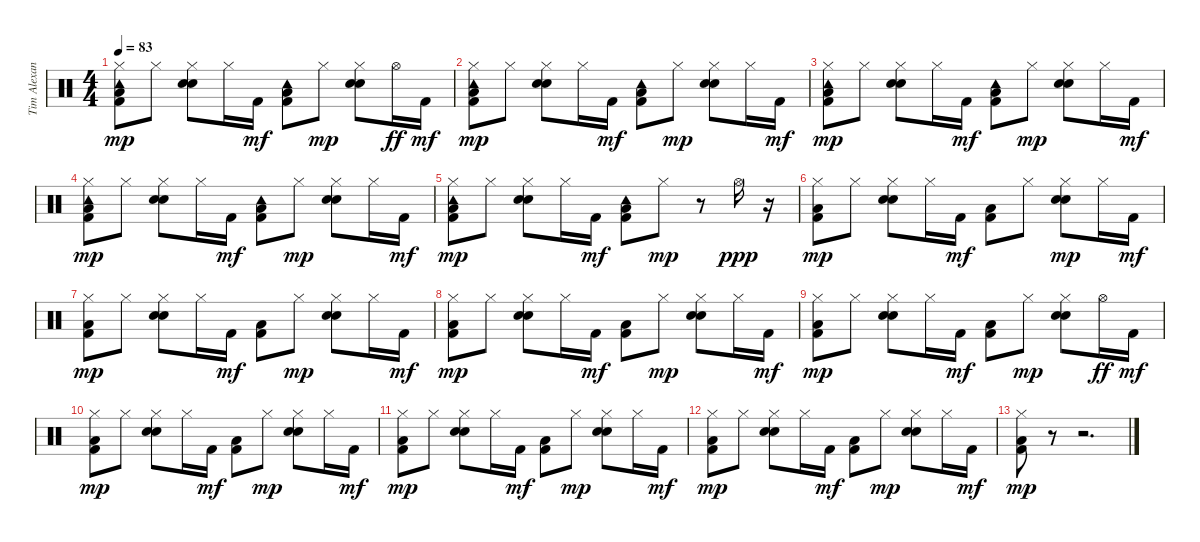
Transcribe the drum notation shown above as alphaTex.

\track ("Tim Alexander" "Tim Alexan") {instrument percussion}
\staff {score}
\articulation defaults
\ts (4 4)
\tempo 83
\clef neutral
\ks c
("Tambourine (hit)" "Kick (hit) 2" "Low Floor Tom (hit)" "Hi-Hat (closed)").8{dy mp} "Hi-Hat (closed)".8 ("Hand Clap (hit)" "Electric Snare (hit)" "Hi-Hat (closed)").8 "Hi-Hat (closed)".16 "Kick (hit) 2".16{dy mf} ("Tambourine (hit)" "Kick (hit) 2" "Low Floor Tom (hit)").8 "Hi-Hat (closed)".8{dy mp} ("Hand Clap (hit)" "Electric Snare (hit)" "Hi-Hat (closed)").8 "Hi-Hat (open)".16{dy ff} "Kick (hit) 2".16{dy mf} |
("Tambourine (hit)" "Kick (hit) 2" "Low Floor Tom (hit)" "Hi-Hat (closed)").8{dy mp} "Hi-Hat (closed)".8 ("Hand Clap (hit)" "Electric Snare (hit)" "Hi-Hat (closed)").8 "Hi-Hat (closed)".16 "Kick (hit) 2".16{dy mf} ("Tambourine (hit)" "Kick (hit) 2" "Low Floor Tom (hit)").8 "Hi-Hat (closed)".8{dy mp} ("Hand Clap (hit)" "Electric Snare (hit)" "Hi-Hat (closed)").8 "Hi-Hat (closed)".16 "Kick (hit) 2".16{dy mf} |
("Tambourine (hit)" "Kick (hit) 2" "Low Floor Tom (hit)" "Hi-Hat (closed)").8{dy mp} "Hi-Hat (closed)".8 ("Hand Clap (hit)" "Electric Snare (hit)" "Hi-Hat (closed)").8 "Hi-Hat (closed)".16 "Kick (hit) 2".16{dy mf} ("Tambourine (hit)" "Kick (hit) 2" "Low Floor Tom (hit)").8 "Hi-Hat (closed)".8{dy mp} ("Hand Clap (hit)" "Electric Snare (hit)" "Hi-Hat (closed)").8 "Hi-Hat (closed)".16 "Kick (hit) 2".16{dy mf} |
("Tambourine (hit)" "Kick (hit) 2" "Low Floor Tom (hit)" "Hi-Hat (closed)").8{dy mp} "Hi-Hat (closed)".8 ("Hand Clap (hit)" "Electric Snare (hit)" "Hi-Hat (closed)").8 "Hi-Hat (closed)".16 "Kick (hit) 2".16{dy mf} ("Tambourine (hit)" "Kick (hit) 2" "Low Floor Tom (hit)").8 "Hi-Hat (closed)".8{dy mp} ("Hand Clap (hit)" "Electric Snare (hit)" "Hi-Hat (closed)").8 "Hi-Hat (closed)".16 "Kick (hit) 2".16{dy mf} |
("Tambourine (hit)" "Kick (hit) 2" "Low Floor Tom (hit)" "Hi-Hat (closed)").8{dy mp} "Hi-Hat (closed)".8 ("Hand Clap (hit)" "Electric Snare (hit)" "Hi-Hat (closed)").8 "Hi-Hat (closed)".16 "Kick (hit) 2".16{dy mf} ("Tambourine (hit)" "Kick (hit) 2" "Low Floor Tom (hit)").8 "Hi-Hat (closed)".8{dy mp} r.8 "Hi-Hat (open)".16{dy ppp} r.16 |
("Kick (hit) 2" "Low Floor Tom (hit)" "Hi-Hat (closed)").8{dy mp} "Hi-Hat (closed)".8 ("Hand Clap (hit)" "Electric Snare (hit)" "Hi-Hat (closed)").8 "Hi-Hat (closed)".16 "Kick (hit) 2".16{dy mf} ("Kick (hit) 2" "Low Floor Tom (hit)").8 "Hi-Hat (closed)".8 ("Hand Clap (hit)" "Electric Snare (hit)" "Hi-Hat (closed)").8{dy mp} "Hi-Hat (closed)".16 "Kick (hit) 2".16{dy mf} |
("Kick (hit) 2" "Low Floor Tom (hit)" "Hi-Hat (closed)").8{dy mp} "Hi-Hat (closed)".8 ("Hand Clap (hit)" "Electric Snare (hit)" "Hi-Hat (closed)").8 "Hi-Hat (closed)".16 "Kick (hit) 2".16{dy mf} ("Kick (hit) 2" "Low Floor Tom (hit)").8 "Hi-Hat (closed)".8{dy mp} ("Hand Clap (hit)" "Electric Snare (hit)" "Hi-Hat (closed)").8 "Hi-Hat (closed)".16 "Kick (hit) 2".16{dy mf} |
("Kick (hit) 2" "Low Floor Tom (hit)" "Hi-Hat (closed)").8{dy mp} "Hi-Hat (closed)".8 ("Hand Clap (hit)" "Electric Snare (hit)" "Hi-Hat (closed)").8 "Hi-Hat (closed)".16 "Kick (hit) 2".16{dy mf} ("Kick (hit) 2" "Low Floor Tom (hit)").8 "Hi-Hat (closed)".8{dy mp} ("Hand Clap (hit)" "Electric Snare (hit)" "Hi-Hat (closed)").8 "Hi-Hat (closed)".16 "Kick (hit) 2".16{dy mf} |
("Kick (hit) 2" "Low Floor Tom (hit)" "Hi-Hat (closed)").8{dy mp} "Hi-Hat (closed)".8 ("Hand Clap (hit)" "Electric Snare (hit)" "Hi-Hat (closed)").8 "Hi-Hat (closed)".16 "Kick (hit) 2".16{dy mf} ("Kick (hit) 2" "Low Floor Tom (hit)").8 "Hi-Hat (closed)".8{dy mp} ("Hand Clap (hit)" "Electric Snare (hit)" "Hi-Hat (closed)").8 "Hi-Hat (open)".16{dy ff} "Kick (hit) 2".16{dy mf} |
("Kick (hit) 2" "Low Floor Tom (hit)" "Hi-Hat (closed)").8{dy mp} "Hi-Hat (closed)".8 ("Hand Clap (hit)" "Electric Snare (hit)" "Hi-Hat (closed)").8 "Hi-Hat (closed)".16 "Kick (hit) 2".16{dy mf} ("Kick (hit) 2" "Low Floor Tom (hit)").8 "Hi-Hat (closed)".8{dy mp} ("Hand Clap (hit)" "Electric Snare (hit)" "Hi-Hat (closed)").8 "Hi-Hat (closed)".16 "Kick (hit) 2".16{dy mf} |
("Kick (hit) 2" "Low Floor Tom (hit)" "Hi-Hat (closed)").8{dy mp} "Hi-Hat (closed)".8 ("Hand Clap (hit)" "Electric Snare (hit)" "Hi-Hat (closed)").8 "Hi-Hat (closed)".16 "Kick (hit) 2".16{dy mf} ("Kick (hit) 2" "Low Floor Tom (hit)").8 "Hi-Hat (closed)".8{dy mp} ("Hand Clap (hit)" "Electric Snare (hit)" "Hi-Hat (closed)").8 "Hi-Hat (closed)".16 "Kick (hit) 2".16{dy mf} |
("Kick (hit) 2" "Low Floor Tom (hit)" "Hi-Hat (closed)").8{dy mp} "Hi-Hat (closed)".8 ("Hand Clap (hit)" "Electric Snare (hit)" "Hi-Hat (closed)").8 "Hi-Hat (closed)".16 "Kick (hit) 2".16{dy mf} ("Kick (hit) 2" "Low Floor Tom (hit)").8 "Hi-Hat (closed)".8{dy mp} ("Hand Clap (hit)" "Electric Snare (hit)" "Hi-Hat (closed)").8 "Hi-Hat (closed)".16 "Kick (hit) 2".16{dy mf} |
("Kick (hit) 2" "Low Floor Tom (hit)" "Hi-Hat (closed)").8{dy mp} r.8 r.2{d}
